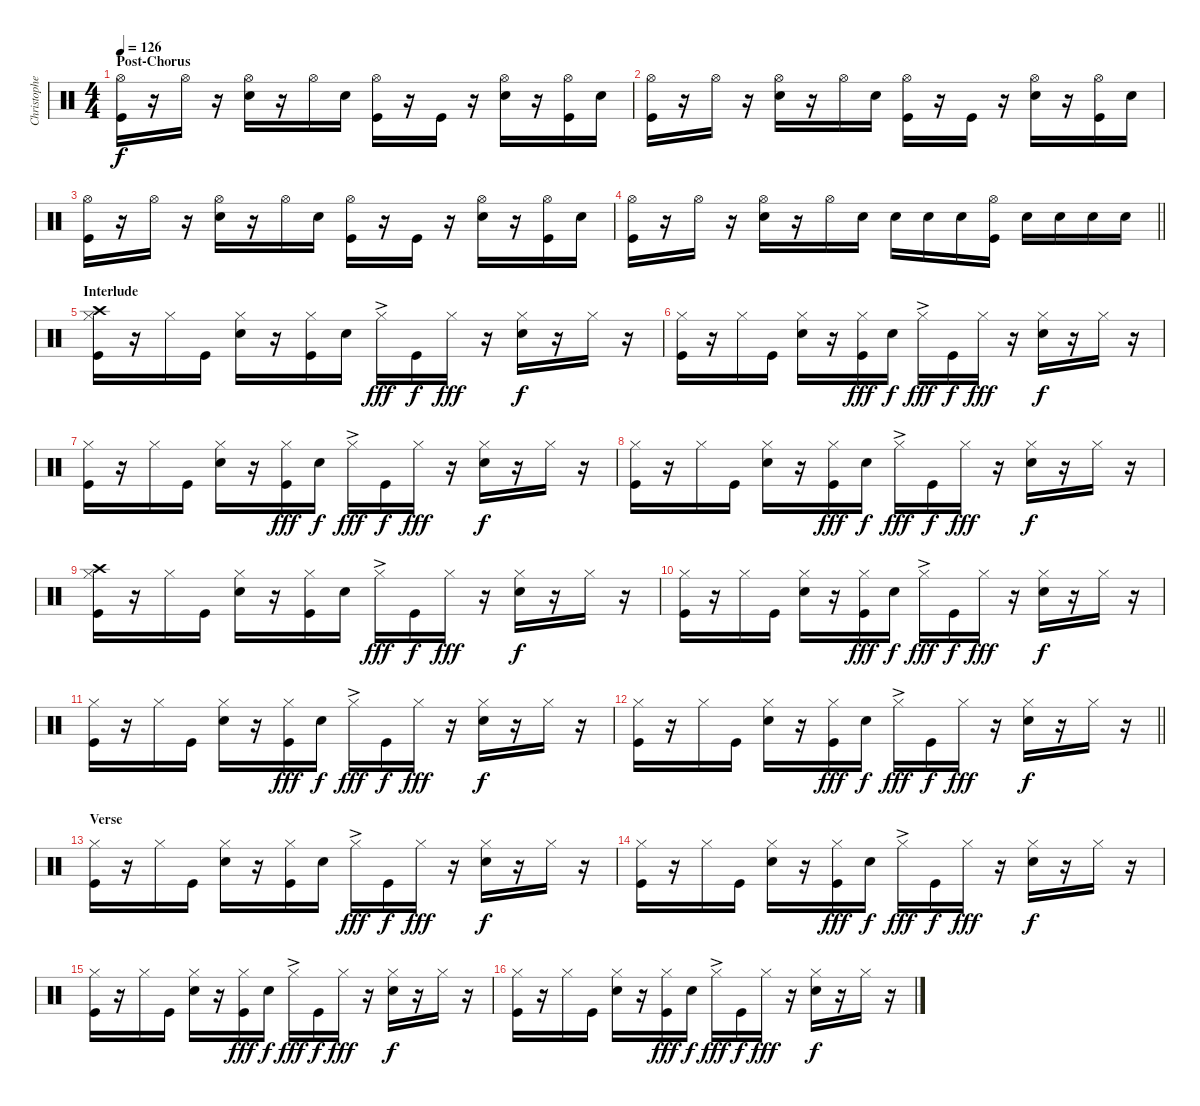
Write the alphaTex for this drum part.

\track ("Christopher - Drums" "Christophe") {mute instrument percussion}
\staff {score}
\articulation defaults
\ts (4 4)
\section ("" "Post-Chorus")
\tempo 126
\clef neutral
\ks c
("Hi-Hat (open)" "Kick (hit)").16{dy f} r.16 "Hi-Hat (open)".16 r.16 ("Hi-Hat (open)" "Snare (hit) 2").16 r.16 "Hi-Hat (open)".16 "Snare (hit) 2".16 ("Hi-Hat (open)" "Kick (hit)").16 r.16 "Kick (hit)".16 r.16 ("Hi-Hat (open)" "Snare (hit) 2").16 r.16 ("Hi-Hat (open)" "Kick (hit)").16 "Snare (hit) 2".16 |
("Hi-Hat (open)" "Kick (hit)").16 r.16 "Hi-Hat (open)".16 r.16 ("Hi-Hat (open)" "Snare (hit) 2").16 r.16 "Hi-Hat (open)".16 "Snare (hit) 2".16 ("Hi-Hat (open)" "Kick (hit)").16 r.16 "Kick (hit)".16 r.16 ("Hi-Hat (open)" "Snare (hit) 2").16 r.16 ("Hi-Hat (open)" "Kick (hit)").16 "Snare (hit) 2".16 |
("Hi-Hat (open)" "Kick (hit)").16 r.16 "Hi-Hat (open)".16 r.16 ("Hi-Hat (open)" "Snare (hit) 2").16 r.16 "Hi-Hat (open)".16 "Snare (hit) 2".16 ("Hi-Hat (open)" "Kick (hit)").16 r.16 "Kick (hit)".16 r.16 ("Hi-Hat (open)" "Snare (hit) 2").16 r.16 ("Hi-Hat (open)" "Kick (hit)").16 "Snare (hit) 2".16 |
\barLineRight lightlight
("Hi-Hat (open)" "Kick (hit)").16 r.16 "Hi-Hat (open)".16 r.16 ("Hi-Hat (open)" "Snare (hit) 2").16 r.16 "Hi-Hat (open)".16 "Snare (hit) 2".16 "Snare (hit) 2".16 "Snare (hit) 2".16 "Snare (hit) 2".16 ("Hi-Hat (open)" "Kick (hit)").16 "Snare (hit) 2".16 "Snare (hit) 2".16 "Snare (hit) 2".16 "Snare (hit) 2".16 |
\section ("" "Interlude")
("Crash high (hit)" "Hi-Hat (closed)" "Kick (hit)").16 r.16 "Hi-Hat (closed)".16 "Kick (hit)".16 ("Hi-Hat (closed)" "Snare (hit) 2").16 r.16 ("Hi-Hat (closed)" "Kick (hit)").16 "Snare (hit) 2".16 "Hi-Hat (closed)"{ac}.16{dy fff} "Kick (hit)".16{dy f} "Hi-Hat (closed)".16{dy fff} r.16 ("Hi-Hat (closed)" "Snare (hit) 2").16{dy f} r.16 "Hi-Hat (closed)".16 r.16 |
("Hi-Hat (closed)" "Kick (hit)").16 r.16 "Hi-Hat (closed)".16 "Kick (hit)".16 ("Hi-Hat (closed)" "Snare (hit) 2").16 r.16 ("Hi-Hat (closed)" "Kick (hit)").16{dy fff} "Snare (hit) 2".16{dy f} "Hi-Hat (closed)"{ac}.16{dy fff} "Kick (hit)".16{dy f} "Hi-Hat (closed)".16{dy fff} r.16 ("Hi-Hat (closed)" "Snare (hit) 2").16{dy f} r.16 "Hi-Hat (closed)".16 r.16 |
("Hi-Hat (closed)" "Kick (hit)").16 r.16 "Hi-Hat (closed)".16 "Kick (hit)".16 ("Hi-Hat (closed)" "Snare (hit) 2").16 r.16 ("Hi-Hat (closed)" "Kick (hit)").16{dy fff} "Snare (hit) 2".16{dy f} "Hi-Hat (closed)"{ac}.16{dy fff} "Kick (hit)".16{dy f} "Hi-Hat (closed)".16{dy fff} r.16 ("Hi-Hat (closed)" "Snare (hit) 2").16{dy f} r.16 "Hi-Hat (closed)".16 r.16 |
("Hi-Hat (closed)" "Kick (hit)").16 r.16 "Hi-Hat (closed)".16 "Kick (hit)".16 ("Hi-Hat (closed)" "Snare (hit) 2").16 r.16 ("Hi-Hat (closed)" "Kick (hit)").16{dy fff} "Snare (hit) 2".16{dy f} "Hi-Hat (closed)"{ac}.16{dy fff} "Kick (hit)".16{dy f} "Hi-Hat (closed)".16{dy fff} r.16 ("Hi-Hat (closed)" "Snare (hit) 2").16{dy f} r.16 "Hi-Hat (closed)".16 r.16 |
("Crash high (hit)" "Hi-Hat (closed)" "Kick (hit)").16 r.16 "Hi-Hat (closed)".16 "Kick (hit)".16 ("Hi-Hat (closed)" "Snare (hit) 2").16 r.16 ("Hi-Hat (closed)" "Kick (hit)").16 "Snare (hit) 2".16 "Hi-Hat (closed)"{ac}.16{dy fff} "Kick (hit)".16{dy f} "Hi-Hat (closed)".16{dy fff} r.16 ("Hi-Hat (closed)" "Snare (hit) 2").16{dy f} r.16 "Hi-Hat (closed)".16 r.16 |
("Hi-Hat (closed)" "Kick (hit)").16 r.16 "Hi-Hat (closed)".16 "Kick (hit)".16 ("Hi-Hat (closed)" "Snare (hit) 2").16 r.16 ("Hi-Hat (closed)" "Kick (hit)").16{dy fff} "Snare (hit) 2".16{dy f} "Hi-Hat (closed)"{ac}.16{dy fff} "Kick (hit)".16{dy f} "Hi-Hat (closed)".16{dy fff} r.16 ("Hi-Hat (closed)" "Snare (hit) 2").16{dy f} r.16 "Hi-Hat (closed)".16 r.16 |
("Hi-Hat (closed)" "Kick (hit)").16 r.16 "Hi-Hat (closed)".16 "Kick (hit)".16 ("Hi-Hat (closed)" "Snare (hit) 2").16 r.16 ("Hi-Hat (closed)" "Kick (hit)").16{dy fff} "Snare (hit) 2".16{dy f} "Hi-Hat (closed)"{ac}.16{dy fff} "Kick (hit)".16{dy f} "Hi-Hat (closed)".16{dy fff} r.16 ("Hi-Hat (closed)" "Snare (hit) 2").16{dy f} r.16 "Hi-Hat (closed)".16 r.16 |
\barLineRight lightlight
("Hi-Hat (closed)" "Kick (hit)").16 r.16 "Hi-Hat (closed)".16 "Kick (hit)".16 ("Hi-Hat (closed)" "Snare (hit) 2").16 r.16 ("Hi-Hat (closed)" "Kick (hit)").16{dy fff} "Snare (hit) 2".16{dy f} "Hi-Hat (closed)"{ac}.16{dy fff} "Kick (hit)".16{dy f} "Hi-Hat (closed)".16{dy fff} r.16 ("Hi-Hat (closed)" "Snare (hit) 2").16{dy f} r.16 "Hi-Hat (closed)".16 r.16 |
\section ("" "Verse")
("Hi-Hat (closed)" "Kick (hit)").16 r.16 "Hi-Hat (closed)".16 "Kick (hit)".16 ("Hi-Hat (closed)" "Snare (hit) 2").16 r.16 ("Hi-Hat (closed)" "Kick (hit)").16 "Snare (hit) 2".16 "Hi-Hat (closed)"{ac}.16{dy fff} "Kick (hit)".16{dy f} "Hi-Hat (closed)".16{dy fff} r.16 ("Hi-Hat (closed)" "Snare (hit) 2").16{dy f} r.16 "Hi-Hat (closed)".16 r.16 |
("Hi-Hat (closed)" "Kick (hit)").16 r.16 "Hi-Hat (closed)".16 "Kick (hit)".16 ("Hi-Hat (closed)" "Snare (hit) 2").16 r.16 ("Hi-Hat (closed)" "Kick (hit)").16{dy fff} "Snare (hit) 2".16{dy f} "Hi-Hat (closed)"{ac}.16{dy fff} "Kick (hit)".16{dy f} "Hi-Hat (closed)".16{dy fff} r.16 ("Hi-Hat (closed)" "Snare (hit) 2").16{dy f} r.16 "Hi-Hat (closed)".16 r.16 |
("Hi-Hat (closed)" "Kick (hit)").16 r.16 "Hi-Hat (closed)".16 "Kick (hit)".16 ("Hi-Hat (closed)" "Snare (hit) 2").16 r.16 ("Hi-Hat (closed)" "Kick (hit)").16{dy fff} "Snare (hit) 2".16{dy f} "Hi-Hat (closed)"{ac}.16{dy fff} "Kick (hit)".16{dy f} "Hi-Hat (closed)".16{dy fff} r.16 ("Hi-Hat (closed)" "Snare (hit) 2").16{dy f} r.16 "Hi-Hat (closed)".16 r.16 |
("Hi-Hat (closed)" "Kick (hit)").16 r.16 "Hi-Hat (closed)".16 "Kick (hit)".16 ("Hi-Hat (closed)" "Snare (hit) 2").16 r.16 ("Hi-Hat (closed)" "Kick (hit)").16{dy fff} "Snare (hit) 2".16{dy f} "Hi-Hat (closed)"{ac}.16{dy fff} "Kick (hit)".16{dy f} "Hi-Hat (closed)".16{dy fff} r.16 ("Hi-Hat (closed)" "Snare (hit) 2").16{dy f} r.16 "Hi-Hat (closed)".16 r.16
